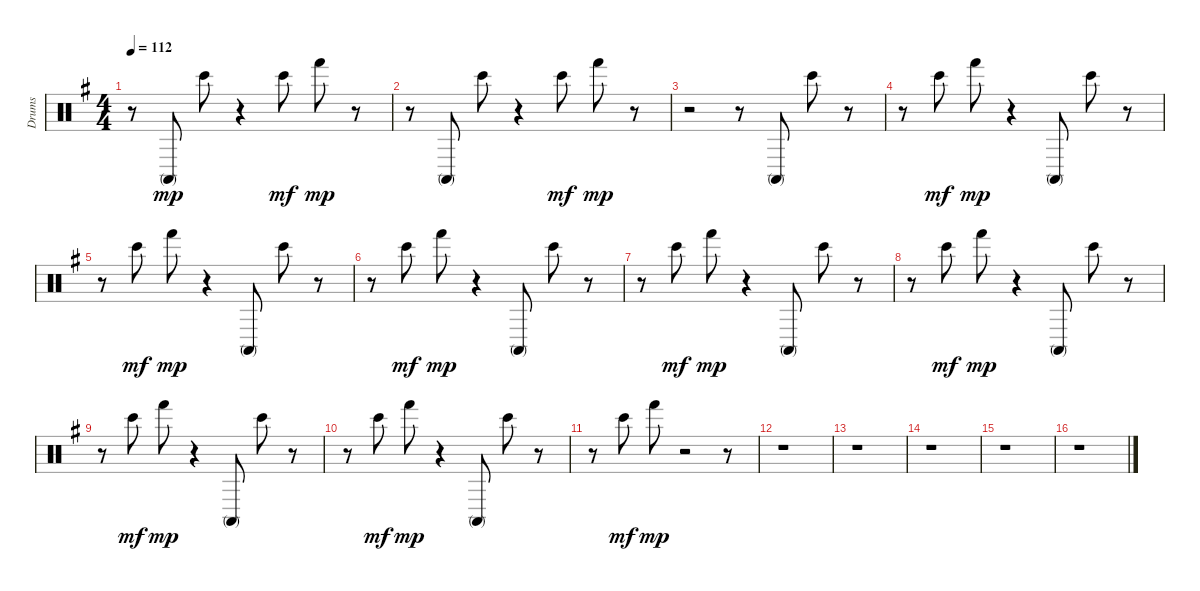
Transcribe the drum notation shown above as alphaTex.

\track ("Drums" "Drums") {instrument percussion}
\staff {score}
\articulation defaults
\ts (4 4)
\tempo 112
\clef neutral
\ks g
r.8{dy mp} "Conga high (mute)".8 "Bongo High (hit)".8 r.4 "Bongo High (hit)".8{dy mf} "Hand (hit)".8{dy mp} r.8 |
r.8 "Conga high (mute)".8 "Bongo High (hit)".8 r.4 "Bongo High (hit)".8{dy mf} "Hand (hit)".8{dy mp} r.8 |
r.2 r.8 "Conga high (mute)".8 "Bongo High (hit)".8 r.8 |
r.8 "Bongo High (hit)".8{dy mf} "Hand (hit)".8{dy mp} r.4 "Conga high (mute)".8 "Bongo High (hit)".8 r.8 |
r.8 "Bongo High (hit)".8{dy mf} "Hand (hit)".8{dy mp} r.4 "Conga high (mute)".8 "Bongo High (hit)".8 r.8 |
r.8 "Bongo High (hit)".8{dy mf} "Hand (hit)".8{dy mp} r.4 "Conga high (mute)".8 "Bongo High (hit)".8 r.8 |
r.8 "Bongo High (hit)".8{dy mf} "Hand (hit)".8{dy mp} r.4 "Conga high (mute)".8 "Bongo High (hit)".8 r.8 |
r.8 "Bongo High (hit)".8{dy mf} "Hand (hit)".8{dy mp} r.4 "Conga high (mute)".8 "Bongo High (hit)".8 r.8 |
r.8 "Bongo High (hit)".8{dy mf} "Hand (hit)".8{dy mp} r.4 "Conga high (mute)".8 "Bongo High (hit)".8 r.8 |
r.8 "Bongo High (hit)".8{dy mf} "Hand (hit)".8{dy mp} r.4 "Conga high (mute)".8 "Bongo High (hit)".8 r.8 |
r.8 "Bongo High (hit)".8{dy mf} "Hand (hit)".8{dy mp} r.2 r.8 |
r.1 |
r.1 |
r.1 |
r.1 |
r.1
